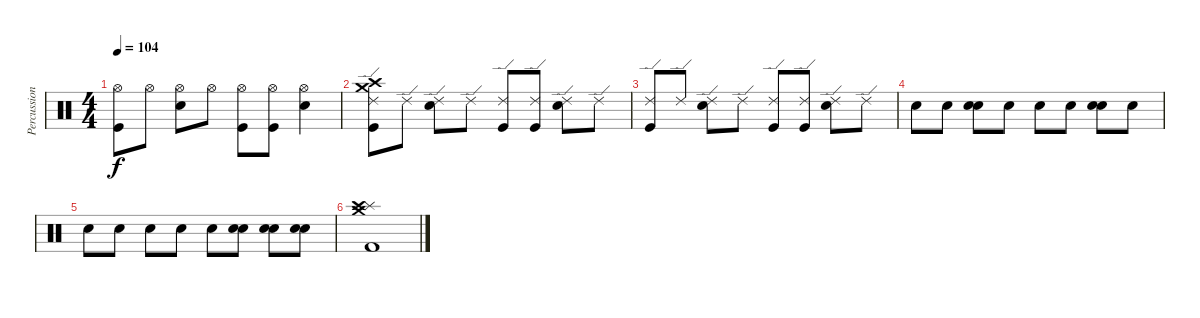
\track ("Percussion" "Percussion") {instrument percussion}
\staff {score}
\articulation defaults
\ts (4 4)
\tempo 104
\clef neutral
\ks c
("Hi-Hat (open)" "Kick (hit)").8{dy f} "Hi-Hat (open)".8 ("Hi-Hat (open)" "Snare (hit) 2").8 "Hi-Hat (open)".8 ("Hi-Hat (open)" "Kick (hit)").8 ("Hi-Hat (open)" "Kick (hit)").8 ("Hi-Hat (open)" "Snare (hit) 2").4 |
("Ride (edge) 2" "Crash medium (hit)" "Kick (hit)" "Crash high (hit)").8 "Ride (edge) 2".8 ("Ride (edge) 2" "Snare (hit) 2").8 "Ride (edge) 2".8 ("Ride (edge) 2" "Kick (hit)").8 ("Ride (edge) 2" "Kick (hit)").8 ("Ride (edge) 2" "Snare (hit) 2").8 "Ride (edge) 2".8 |
("Ride (edge) 2" "Kick (hit)").8 "Ride (edge) 2".8 ("Ride (edge) 2" "Snare (hit) 2").8 "Ride (edge) 2".8 ("Ride (edge) 2" "Kick (hit)").8 ("Ride (edge) 2" "Kick (hit)").8 ("Ride (edge) 2" "Snare (hit) 2").8 "Ride (edge) 2".8 |
"Snare (hit) 2".8 "Snare (hit) 2".8 ("Snare (hit) 2" "Electric Snare (hit)").8 "Snare (hit) 2".8 "Snare (hit) 2".8 "Snare (hit) 2".8 ("Snare (hit) 2" "Electric Snare (hit)").8 "Snare (hit) 2".8 |
"Snare (hit) 2".8 "Snare (hit) 2".8 "Snare (hit) 2".8 "Snare (hit) 2".8 "Snare (hit) 2".8 ("Snare (hit) 2" "Snare (hit) 2").8 ("Snare (hit) 2" "Snare (hit) 2").8 ("Snare (hit) 2" "Snare (hit) 2").8 |
("Splash (hit)" "Crash high (hit)" "Crash medium (hit)" "Kick (hit) 2").1
